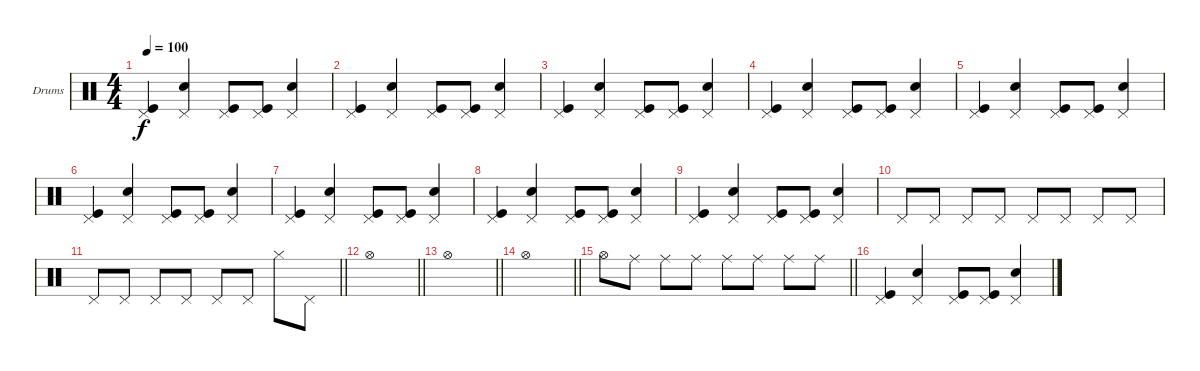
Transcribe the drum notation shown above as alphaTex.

\bracketExtendMode groupsimilarinstruments
\firstSystemTrackNameOrientation horizontal
\otherSystemsTrackNameOrientation horizontal
\track ("Drumkit" "Drums") {instrument percussion}
\staff {score}
\articulation defaults
\ts (4 4)
\tempo 100
\clef neutral
\ks c
("Pedal Hi-Hat (hit)" "Kick (hit)").4{dy f} ("Pedal Hi-Hat (hit)" "Snare (hit) 2").4 ("Pedal Hi-Hat (hit)" "Kick (hit)").8 ("Pedal Hi-Hat (hit)" "Kick (hit)").8 ("Pedal Hi-Hat (hit)" "Snare (hit) 2").4 |
("Pedal Hi-Hat (hit)" "Kick (hit)").4 ("Pedal Hi-Hat (hit)" "Snare (hit) 2").4 ("Pedal Hi-Hat (hit)" "Kick (hit)").8 ("Pedal Hi-Hat (hit)" "Kick (hit)").8 ("Pedal Hi-Hat (hit)" "Snare (hit) 2").4 |
("Pedal Hi-Hat (hit)" "Kick (hit)").4 ("Pedal Hi-Hat (hit)" "Snare (hit) 2").4 ("Pedal Hi-Hat (hit)" "Kick (hit)").8 ("Pedal Hi-Hat (hit)" "Kick (hit)").8 ("Pedal Hi-Hat (hit)" "Snare (hit) 2").4 |
("Pedal Hi-Hat (hit)" "Kick (hit)").4 ("Pedal Hi-Hat (hit)" "Snare (hit) 2").4 ("Pedal Hi-Hat (hit)" "Kick (hit)").8 ("Pedal Hi-Hat (hit)" "Kick (hit)").8 ("Pedal Hi-Hat (hit)" "Snare (hit) 2").4 |
("Pedal Hi-Hat (hit)" "Kick (hit)").4 ("Pedal Hi-Hat (hit)" "Snare (hit) 2").4 ("Pedal Hi-Hat (hit)" "Kick (hit)").8 ("Pedal Hi-Hat (hit)" "Kick (hit)").8 ("Pedal Hi-Hat (hit)" "Snare (hit) 2").4 |
("Pedal Hi-Hat (hit)" "Kick (hit)").4 ("Pedal Hi-Hat (hit)" "Snare (hit) 2").4 ("Pedal Hi-Hat (hit)" "Kick (hit)").8 ("Pedal Hi-Hat (hit)" "Kick (hit)").8 ("Pedal Hi-Hat (hit)" "Snare (hit) 2").4 |
("Pedal Hi-Hat (hit)" "Kick (hit)").4 ("Pedal Hi-Hat (hit)" "Snare (hit) 2").4 ("Pedal Hi-Hat (hit)" "Kick (hit)").8 ("Pedal Hi-Hat (hit)" "Kick (hit)").8 ("Pedal Hi-Hat (hit)" "Snare (hit) 2").4 |
("Pedal Hi-Hat (hit)" "Kick (hit)").4 ("Pedal Hi-Hat (hit)" "Snare (hit) 2").4 ("Pedal Hi-Hat (hit)" "Kick (hit)").8 ("Pedal Hi-Hat (hit)" "Kick (hit)").8 ("Pedal Hi-Hat (hit)" "Snare (hit) 2").4 |
("Pedal Hi-Hat (hit)" "Kick (hit)").4 ("Pedal Hi-Hat (hit)" "Snare (hit) 2").4 ("Pedal Hi-Hat (hit)" "Kick (hit)").8 ("Pedal Hi-Hat (hit)" "Kick (hit)").8 ("Pedal Hi-Hat (hit)" "Snare (hit) 2").4 |
"Pedal Hi-Hat (hit)".8 "Pedal Hi-Hat (hit)".8 "Pedal Hi-Hat (hit)".8 "Pedal Hi-Hat (hit)".8 "Pedal Hi-Hat (hit)".8 "Pedal Hi-Hat (hit)".8 "Pedal Hi-Hat (hit)".8 "Pedal Hi-Hat (hit)".8 |
\barLineRight lightlight "Pedal Hi-Hat (hit)".8 "Pedal Hi-Hat (hit)".8 "Pedal Hi-Hat (hit)".8 "Pedal Hi-Hat (hit)".8 "Pedal Hi-Hat (hit)".8 "Pedal Hi-Hat (hit)".8 "Hi-Hat (closed)".8 "Pedal Hi-Hat (hit)".8
|
\barLineRight lightlight "Hi-Hat (open)".1
|
\barLineRight lightlight "Hi-Hat (open)".1
|
\barLineRight lightlight "Hi-Hat (open)".1
|
\barLineRight lightlight "Hi-Hat (open)".8 "Ride (middle)".8 "Ride (middle)".8 "Ride (middle)".8 "Ride (middle)".8 "Ride (middle)".8 "Ride (middle)".8 "Ride (middle)".8
|
("Pedal Hi-Hat (hit)" "Kick (hit)").4 ("Pedal Hi-Hat (hit)" "Snare (hit) 2").4 ("Pedal Hi-Hat (hit)" "Kick (hit)").8 ("Pedal Hi-Hat (hit)" "Kick (hit)").8 ("Pedal Hi-Hat (hit)" "Snare (hit) 2").4
